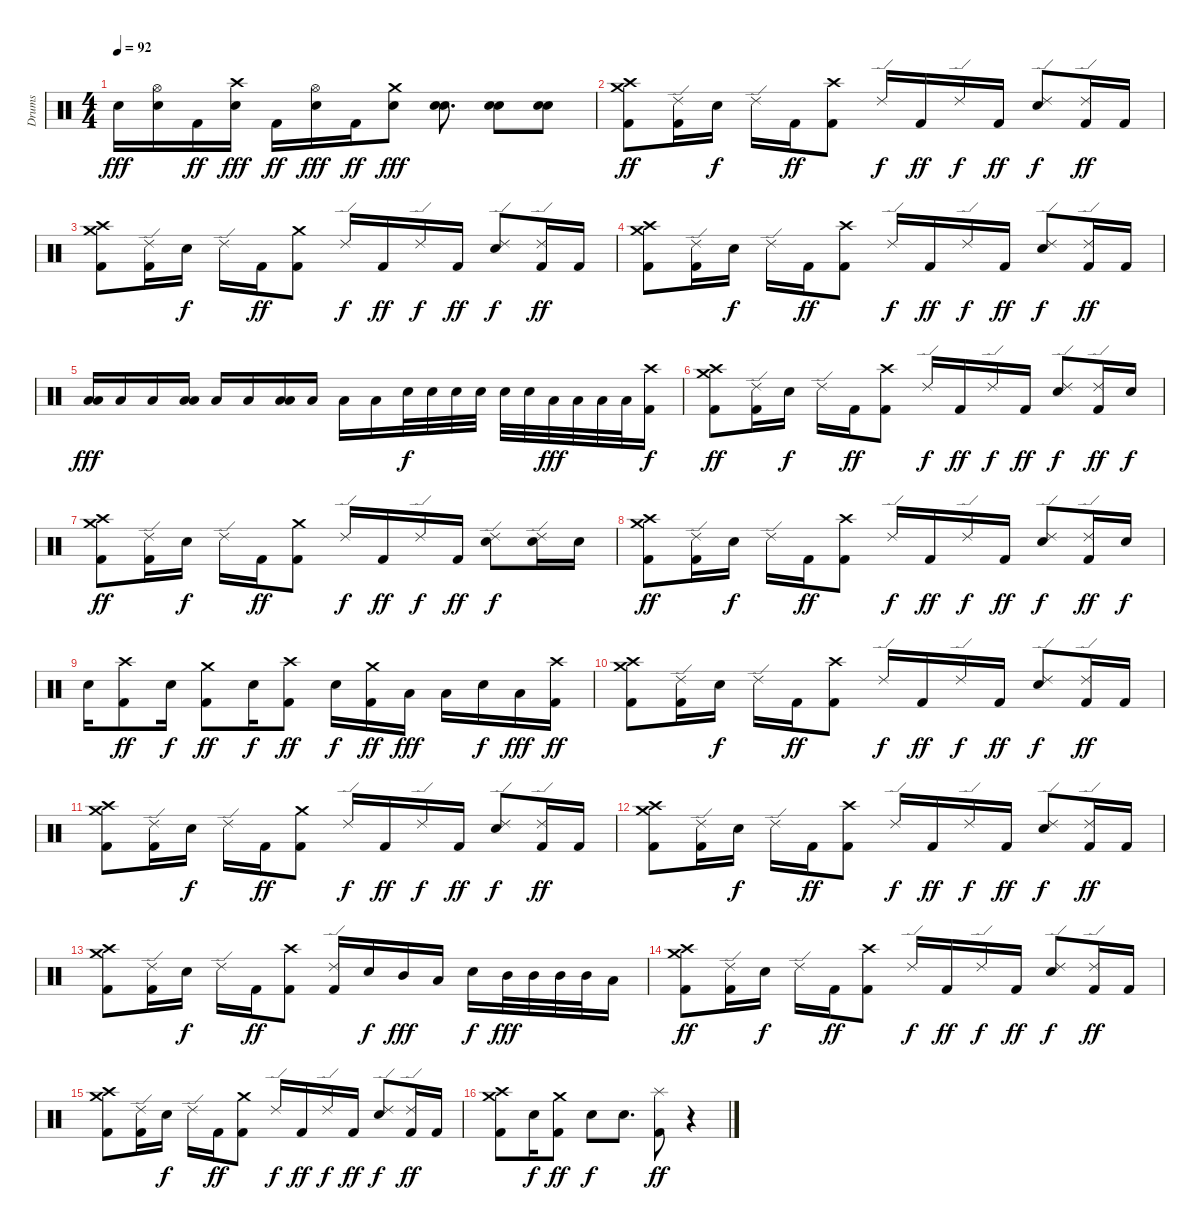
\track ("Drums" "Drums") {instrument percussion}
\staff {score}
\articulation defaults
\ts (4 4)
\tempo 92
\clef neutral
\ks c "Electric Snare (hit)".16{dy fff}
("Hi-Hat (open)" "Electric Snare (hit)").16 "Kick (hit) 2".16{dy ff} ("Crash high (hit)" "Electric Snare (hit)").16{dy fff} "Kick (hit) 2".16{dy ff} ("Hi-Hat (open)" "Electric Snare (hit)").16{dy fff} "Kick (hit) 2".16{dy ff} ("Crash medium (hit)" "Electric Snare (hit)").8{dy fff} ("Electric Snare (hit)" "Electric Snare (hit)").8{d} ("Electric Snare (hit)" "Electric Snare (hit)").8 ("Electric Snare (hit)" "Electric Snare (hit)").8 |
("Crash medium (hit)" "Crash high (hit)" "Kick (hit) 2").8{dy ff} ("Ride (edge) 2" "Kick (hit) 2").16 "Electric Snare (hit)".16{dy f} "Ride (edge) 2".16 "Kick (hit) 2".16{dy ff} ("Crash high (hit)" "Kick (hit) 2").8 "Ride (edge) 2".16{dy f} "Kick (hit) 2".16{dy ff} "Ride (edge) 2".16{dy f} "Kick (hit) 2".16{dy ff} ("Ride (edge) 2" "Electric Snare (hit)").8{dy f} ("Ride (edge) 2" "Kick (hit) 2").16{dy ff} "Kick (hit) 2".16 |
("Crash medium (hit)" "Crash high (hit)" "Kick (hit) 2").8 ("Ride (edge) 2" "Kick (hit) 2").16 "Electric Snare (hit)".16{dy f} "Ride (edge) 2".16 "Kick (hit) 2".16{dy ff} ("Crash medium (hit)" "Kick (hit) 2").8 "Ride (edge) 2".16{dy f} "Kick (hit) 2".16{dy ff} "Ride (edge) 2".16{dy f} "Kick (hit) 2".16{dy ff} ("Ride (edge) 2" "Electric Snare (hit)").8{dy f} ("Ride (edge) 2" "Kick (hit) 2").16{dy ff} "Kick (hit) 2".16 |
("Crash medium (hit)" "Crash high (hit)" "Kick (hit) 2").8 ("Ride (edge) 2" "Kick (hit) 2").16 "Electric Snare (hit)".16{dy f} "Ride (edge) 2".16 "Kick (hit) 2".16{dy ff} ("Crash high (hit)" "Kick (hit) 2").8 "Ride (edge) 2".16{dy f} "Kick (hit) 2".16{dy ff} "Ride (edge) 2".16{dy f} "Kick (hit) 2".16{dy ff} ("Ride (edge) 2" "Electric Snare (hit)").8{dy f} ("Ride (edge) 2" "Kick (hit) 2").16{dy ff} "Kick (hit) 2".16 |
("Low Tom (hit)" "Low Floor Tom (hit)").16{dy fff} "Low Floor Tom (hit)".16 "Low Floor Tom (hit)".16 ("Low Tom (hit)" "Low Floor Tom (hit)").16 "Low Floor Tom (hit)".16 "Low Floor Tom (hit)".16 ("Low Tom (hit)" "Low Floor Tom (hit)").16 "Low Floor Tom (hit)".16 "Low Floor Tom (hit)".16 "Low Floor Tom (hit)".16 "Electric Snare (hit)".32{dy f} "Electric Snare (hit)".32 "Electric Snare (hit)".32 "Electric Snare (hit)".32 "Electric Snare (hit)".32 "Electric Snare (hit)".32 "Low Tom (hit)".32{dy fff} "Low Tom (hit)".32 "Low Tom (hit)".32 "Low Tom (hit)".32 ("Crash high (hit)" "Kick (hit) 2").16{dy f} |
("Crash medium (hit)" "Crash high (hit)" "Kick (hit) 2").8{dy ff} ("Ride (edge) 2" "Kick (hit) 2").16 "Electric Snare (hit)".16{dy f} "Ride (edge) 2".16 "Kick (hit) 2".16{dy ff} ("Crash high (hit)" "Kick (hit) 2").8 "Ride (edge) 2".16{dy f} "Kick (hit) 2".16{dy ff} "Ride (edge) 2".16{dy f} "Kick (hit) 2".16{dy ff} ("Ride (edge) 2" "Electric Snare (hit)").8{dy f} ("Ride (edge) 2" "Kick (hit) 2").16{dy ff} "Electric Snare (hit)".16{dy f} |
("Crash medium (hit)" "Crash high (hit)" "Kick (hit) 2").8{dy ff} ("Ride (edge) 2" "Kick (hit) 2").16 "Electric Snare (hit)".16{dy f} "Ride (edge) 2".16 "Kick (hit) 2".16{dy ff} ("Crash medium (hit)" "Kick (hit) 2").8 "Ride (edge) 2".16{dy f} "Kick (hit) 2".16{dy ff} "Ride (edge) 2".16{dy f} "Kick (hit) 2".16{dy ff} ("Ride (edge) 2" "Electric Snare (hit)").8{dy f} ("Ride (edge) 2" "Electric Snare (hit)").16 "Electric Snare (hit)".16 |
("Crash medium (hit)" "Crash high (hit)" "Kick (hit) 2").8{dy ff} ("Ride (edge) 2" "Kick (hit) 2").16 "Electric Snare (hit)".16{dy f} "Ride (edge) 2".16 "Kick (hit) 2".16{dy ff} ("Crash high (hit)" "Kick (hit) 2").8 "Ride (edge) 2".16{dy f} "Kick (hit) 2".16{dy ff} "Ride (edge) 2".16{dy f} "Kick (hit) 2".16{dy ff} ("Ride (edge) 2" "Electric Snare (hit)").8{dy f} ("Ride (edge) 2" "Kick (hit) 2").16{dy ff} "Electric Snare (hit)".16{dy f} |
"Electric Snare (hit)".16 ("Crash high (hit)" "Kick (hit) 2").8{dy ff} "Electric Snare (hit)".16{dy f} ("Crash medium (hit)" "Kick (hit) 2").8{dy ff} "Electric Snare (hit)".16{dy f} ("Crash high (hit)" "Kick (hit) 2").8{dy ff} "Electric Snare (hit)".16{dy f} ("Crash medium (hit)" "Kick (hit) 2").16{dy ff} "Low Floor Tom (hit)".16{dy fff} "Low Floor Tom (hit)".16 "Electric Snare (hit)".16{dy f} "Low Floor Tom (hit)".16{dy fff} ("Crash high (hit)" "Kick (hit) 2").16{dy ff} |
("Crash medium (hit)" "Crash high (hit)" "Kick (hit) 2").8 ("Ride (edge) 2" "Kick (hit) 2").16 "Electric Snare (hit)".16{dy f} "Ride (edge) 2".16 "Kick (hit) 2".16{dy ff} ("Crash high (hit)" "Kick (hit) 2").8 "Ride (edge) 2".16{dy f} "Kick (hit) 2".16{dy ff} "Ride (edge) 2".16{dy f} "Kick (hit) 2".16{dy ff} ("Ride (edge) 2" "Electric Snare (hit)").8{dy f} ("Ride (edge) 2" "Kick (hit) 2").16{dy ff} "Kick (hit) 2".16 |
("Crash medium (hit)" "Crash high (hit)" "Kick (hit) 2").8 ("Ride (edge) 2" "Kick (hit) 2").16 "Electric Snare (hit)".16{dy f} "Ride (edge) 2".16 "Kick (hit) 2".16{dy ff} ("Crash medium (hit)" "Kick (hit) 2").8 "Ride (edge) 2".16{dy f} "Kick (hit) 2".16{dy ff} "Ride (edge) 2".16{dy f} "Kick (hit) 2".16{dy ff} ("Ride (edge) 2" "Electric Snare (hit)").8{dy f} ("Ride (edge) 2" "Kick (hit) 2").16{dy ff} "Kick (hit) 2".16 |
("Crash medium (hit)" "Crash high (hit)" "Kick (hit) 2").8 ("Ride (edge) 2" "Kick (hit) 2").16 "Electric Snare (hit)".16{dy f} "Ride (edge) 2".16 "Kick (hit) 2".16{dy ff} ("Crash high (hit)" "Kick (hit) 2").8 "Ride (edge) 2".16{dy f} "Kick (hit) 2".16{dy ff} "Ride (edge) 2".16{dy f} "Kick (hit) 2".16{dy ff} ("Ride (edge) 2" "Electric Snare (hit)").8{dy f} ("Ride (edge) 2" "Kick (hit) 2").16{dy ff} "Kick (hit) 2".16 |
("Crash medium (hit)" "Crash high (hit)" "Kick (hit) 2").8 ("Ride (edge) 2" "Kick (hit) 2").16 "Electric Snare (hit)".16{dy f} "Ride (edge) 2".16 "Kick (hit) 2".16{dy ff} ("Crash high (hit)" "Kick (hit) 2").8 ("Ride (edge) 2" "Kick (hit) 2").16 "Electric Snare (hit)".16{dy f} "Mid Tom (hit)".16{dy fff} "Low Tom (hit)".16 "Electric Snare (hit)".16{dy f} "Mid Tom (hit)".32{dy fff} "Mid Tom (hit)".32 "Mid Tom (hit)".32 "Mid Tom (hit)".32 "Low Tom (hit)".16 |
("Crash medium (hit)" "Crash high (hit)" "Kick (hit) 2").8{dy ff} ("Ride (edge) 2" "Kick (hit) 2").16 "Electric Snare (hit)".16{dy f} "Ride (edge) 2".16 "Kick (hit) 2".16{dy ff} ("Crash high (hit)" "Kick (hit) 2").8 "Ride (edge) 2".16{dy f} "Kick (hit) 2".16{dy ff} "Ride (edge) 2".16{dy f} "Kick (hit) 2".16{dy ff} ("Ride (edge) 2" "Electric Snare (hit)").8{dy f} ("Ride (edge) 2" "Kick (hit) 2").16{dy ff} "Kick (hit) 2".16 |
("Crash medium (hit)" "Crash high (hit)" "Kick (hit) 2").8 ("Ride (edge) 2" "Kick (hit) 2").16 "Electric Snare (hit)".16{dy f} "Ride (edge) 2".16 "Kick (hit) 2".16{dy ff} ("Crash medium (hit)" "Kick (hit) 2").8 "Ride (edge) 2".16{dy f} "Kick (hit) 2".16{dy ff} "Ride (edge) 2".16{dy f} "Kick (hit) 2".16{dy ff} ("Ride (edge) 2" "Electric Snare (hit)").8{dy f} ("Ride (edge) 2" "Kick (hit) 2").16{dy ff} "Kick (hit) 2".16 |
("Crash medium (hit)" "Crash high (hit)" "Kick (hit) 2").8 "Electric Snare (hit)".16{dy f} ("Crash medium (hit)" "Kick (hit) 2").8{dy ff} "Electric Snare (hit)".8{dy f} "Electric Snare (hit)".8{d} ("Splash (hit)" "Kick (hit) 2").8{dy ff} r.4
